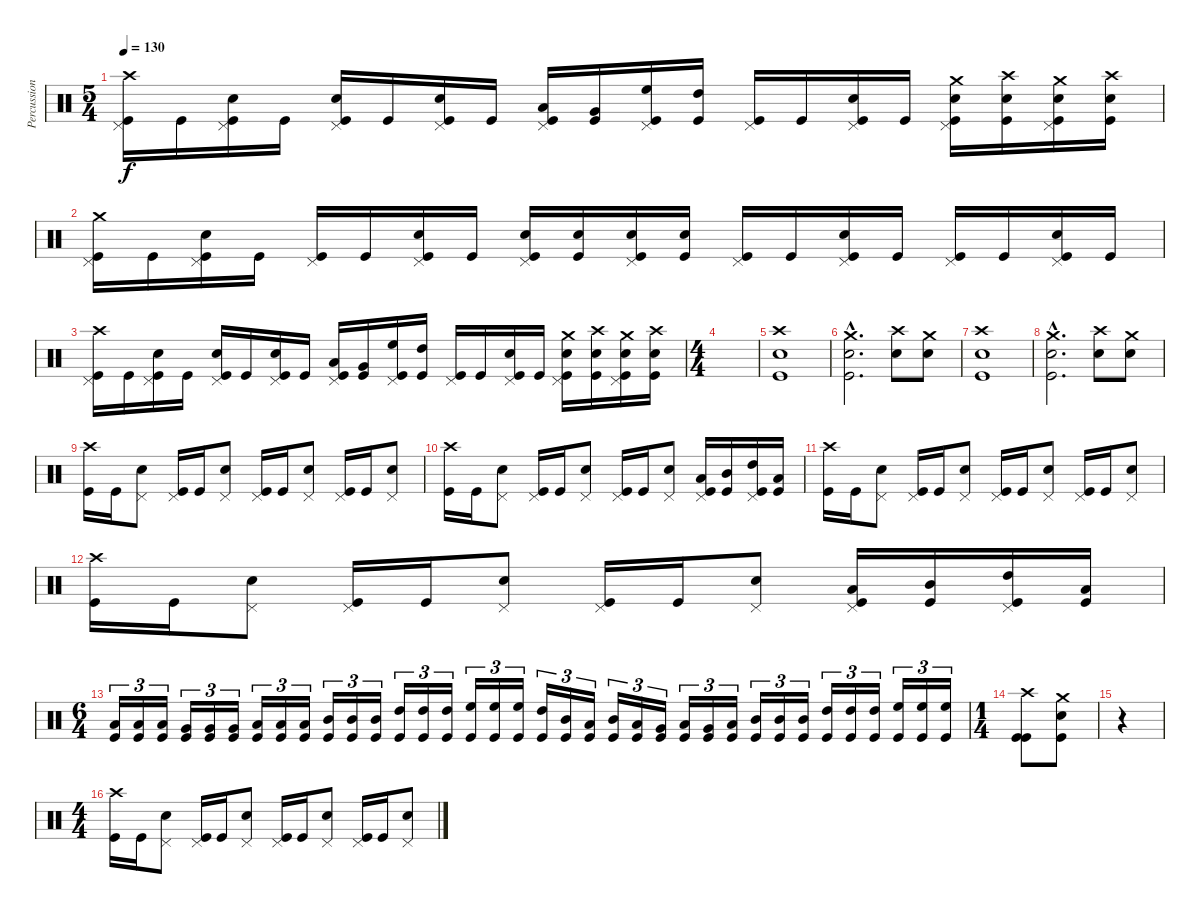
\track ("Percussion" "Percussion") {instrument percussion}
\staff {score}
\articulation defaults
\ts (5 4)
\tempo 130
\clef neutral
\ks c
("Crash high (hit)" "Pedal Hi-Hat (hit)" "Kick (hit)").16{dy f} "Kick (hit)".16 ("Snare (hit) 2" "Pedal Hi-Hat (hit)" "Kick (hit)").16 "Kick (hit)".16 ("Snare (hit) 2" "Pedal Hi-Hat (hit)" "Kick (hit)").16 "Kick (hit)".16 ("Snare (hit) 2" "Pedal Hi-Hat (hit)" "Kick (hit)").16 "Kick (hit)".16 ("Low Floor Tom (hit)" "Pedal Hi-Hat (hit)" "Kick (hit)").16 ("Very Low Tom (hit)" "Kick (hit)").16 ("High Floor Tom (hit)" "Pedal Hi-Hat (hit)" "Kick (hit)").16 ("High Tom (hit)" "Kick (hit)").16 ("Pedal Hi-Hat (hit)" "Kick (hit)").16 "Kick (hit)".16 ("Snare (hit) 2" "Pedal Hi-Hat (hit)" "Kick (hit)").16 "Kick (hit)".16 ("Crash medium (hit)" "Snare (hit) 2" "Pedal Hi-Hat (hit)" "Kick (hit)").16 ("Crash high (hit)" "Snare (hit) 2" "Kick (hit)").16 ("Crash medium (hit)" "Snare (hit) 2" "Pedal Hi-Hat (hit)" "Kick (hit)").16 ("Crash high (hit)" "Snare (hit) 2" "Kick (hit)").16 |
("Pedal Hi-Hat (hit)" "Crash medium (hit)" "Kick (hit)").16 "Kick (hit)".16 ("Pedal Hi-Hat (hit)" "Snare (hit) 2" "Kick (hit)").16 "Kick (hit)".16 ("Pedal Hi-Hat (hit)" "Kick (hit)").16 "Kick (hit)".16 ("Pedal Hi-Hat (hit)" "Snare (hit) 2" "Kick (hit)").16 "Kick (hit)".16 ("Pedal Hi-Hat (hit)" "Snare (hit) 2" "Kick (hit)").16 ("Snare (hit) 2" "Kick (hit)").16 ("Pedal Hi-Hat (hit)" "Snare (hit) 2" "Kick (hit)").16 ("Snare (hit) 2" "Kick (hit)").16 ("Pedal Hi-Hat (hit)" "Kick (hit)").16 "Kick (hit)".16 ("Pedal Hi-Hat (hit)" "Snare (hit) 2" "Kick (hit)").16 "Kick (hit)".16 ("Pedal Hi-Hat (hit)" "Kick (hit)").16 "Kick (hit)".16 ("Pedal Hi-Hat (hit)" "Snare (hit) 2" "Kick (hit)").16 "Kick (hit)".16 |
("Crash high (hit)" "Pedal Hi-Hat (hit)" "Kick (hit)").16 "Kick (hit)".16 ("Snare (hit) 2" "Pedal Hi-Hat (hit)" "Kick (hit)").16 "Kick (hit)".16 ("Snare (hit) 2" "Pedal Hi-Hat (hit)" "Kick (hit)").16 "Kick (hit)".16 ("Snare (hit) 2" "Pedal Hi-Hat (hit)" "Kick (hit)").16 "Kick (hit)".16 ("Low Floor Tom (hit)" "Pedal Hi-Hat (hit)" "Kick (hit)").16 ("Very Low Tom (hit)" "Kick (hit)").16 ("High Floor Tom (hit)" "Pedal Hi-Hat (hit)" "Kick (hit)").16 ("High Tom (hit)" "Kick (hit)").16 ("Pedal Hi-Hat (hit)" "Kick (hit)").16 "Kick (hit)".16 ("Snare (hit) 2" "Pedal Hi-Hat (hit)" "Kick (hit)").16 "Kick (hit)".16 ("Crash medium (hit)" "Snare (hit) 2" "Pedal Hi-Hat (hit)" "Kick (hit)").16 ("Crash high (hit)" "Snare (hit) 2" "Kick (hit)").16 ("Crash medium (hit)" "Snare (hit) 2" "Pedal Hi-Hat (hit)" "Kick (hit)").16 ("Crash high (hit)" "Snare (hit) 2" "Kick (hit)").16 |
\ts (4 4)
|
("Crash high (hit)" "Snare (hit) 2" "Kick (hit)").1 |
("Crash medium (hit)"{hac} "Snare (hit) 2"{hac} "Kick (hit)"{hac}).2{d} ("Crash high (hit)" "Snare (hit) 2").8 ("Crash medium (hit)" "Snare (hit) 2").8 |
("Crash high (hit)" "Snare (hit) 2" "Kick (hit)").1 |
("Crash medium (hit)"{hac} "Snare (hit) 2"{hac} "Kick (hit)"{hac}).2{d} ("Crash high (hit)" "Snare (hit) 2").8 ("Crash medium (hit)" "Snare (hit) 2").8 |
("Crash high (hit)" "Kick (hit)").16 "Kick (hit)".16 ("Pedal Hi-Hat (hit)" "Snare (hit) 2").8 ("Pedal Hi-Hat (hit)" "Kick (hit)").16 "Kick (hit)".16 ("Pedal Hi-Hat (hit)" "Snare (hit) 2").8 ("Pedal Hi-Hat (hit)" "Kick (hit)").16 "Kick (hit)".16 ("Pedal Hi-Hat (hit)" "Snare (hit) 2").8 ("Pedal Hi-Hat (hit)" "Kick (hit)").16 "Kick (hit)".16 ("Pedal Hi-Hat (hit)" "Snare (hit) 2").8 |
("Crash high (hit)" "Kick (hit)").16 "Kick (hit)".16 ("Pedal Hi-Hat (hit)" "Snare (hit) 2").8 ("Pedal Hi-Hat (hit)" "Kick (hit)").16 "Kick (hit)".16 ("Pedal Hi-Hat (hit)" "Snare (hit) 2").8 ("Pedal Hi-Hat (hit)" "Kick (hit)").16 "Kick (hit)".16 ("Pedal Hi-Hat (hit)" "Snare (hit) 2").8 ("Low Tom (hit)" "Pedal Hi-Hat (hit)" "Kick (hit)").16 ("Mid Tom (hit)" "Kick (hit)").16 ("High Tom (hit)" "Pedal Hi-Hat (hit)" "Kick (hit)").16 ("Low Tom (hit)" "Kick (hit)").16 |
("Crash high (hit)" "Kick (hit)").16 "Kick (hit)".16 ("Pedal Hi-Hat (hit)" "Snare (hit) 2").8 ("Pedal Hi-Hat (hit)" "Kick (hit)").16 "Kick (hit)".16 ("Pedal Hi-Hat (hit)" "Snare (hit) 2").8 ("Pedal Hi-Hat (hit)" "Kick (hit)").16 "Kick (hit)".16 ("Pedal Hi-Hat (hit)" "Snare (hit) 2").8 ("Pedal Hi-Hat (hit)" "Kick (hit)").16 "Kick (hit)".16 ("Pedal Hi-Hat (hit)" "Snare (hit) 2").8 |
("Crash high (hit)" "Kick (hit)").16 "Kick (hit)".16 ("Pedal Hi-Hat (hit)" "Snare (hit) 2").8 ("Pedal Hi-Hat (hit)" "Kick (hit)").16 "Kick (hit)".16 ("Pedal Hi-Hat (hit)" "Snare (hit) 2").8 ("Pedal Hi-Hat (hit)" "Kick (hit)").16 "Kick (hit)".16 ("Pedal Hi-Hat (hit)" "Snare (hit) 2").8 ("Low Tom (hit)" "Pedal Hi-Hat (hit)" "Kick (hit)").16 ("Mid Tom (hit)" "Kick (hit)").16 ("High Tom (hit)" "Pedal Hi-Hat (hit)" "Kick (hit)").16 ("Low Tom (hit)" "Kick (hit)").16 |
\ts (6 4)
("Low Floor Tom (hit)" "Kick (hit)").16{tu (3 2)} ("Low Floor Tom (hit)" "Kick (hit)").16{tu (3 2)} ("Low Floor Tom (hit)" "Kick (hit)").16{tu (3 2)} ("Very Low Tom (hit)" "Kick (hit)").16{tu (3 2)} ("Very Low Tom (hit)" "Kick (hit)").16{tu (3 2)} ("Very Low Tom (hit)" "Kick (hit)").16{tu (3 2)} ("Low Tom (hit)" "Kick (hit)").16{tu (3 2)} ("Low Tom (hit)" "Kick (hit)").16{tu (3 2)} ("Low Tom (hit)" "Kick (hit)").16{tu (3 2)} ("Mid Tom (hit)" "Kick (hit)").16{tu (3 2)} ("Mid Tom (hit)" "Kick (hit)").16{tu (3 2)} ("Mid Tom (hit)" "Kick (hit)").16{tu (3 2)} ("High Tom (hit)" "Kick (hit)").16{tu (3 2)} ("High Tom (hit)" "Kick (hit)").16{tu (3 2)} ("High Tom (hit)" "Kick (hit)").16{tu (3 2)} ("High Floor Tom (hit)" "Kick (hit)").16{tu (3 2)} ("High Floor Tom (hit)" "Kick (hit)").16{tu (3 2)} ("High Floor Tom (hit)" "Kick (hit)").16{tu (3 2)} ("High Tom (hit)" "Kick (hit)").16{tu (3 2)} ("Mid Tom (hit)" "Kick (hit)").16{tu (3 2)} ("Low Tom (hit)" "Kick (hit)").16{tu (3 2)} ("Mid Tom (hit)" "Kick (hit)").16{tu (3 2)} ("Low Tom (hit)" "Kick (hit)").16{tu (3 2)} ("Very Low Tom (hit)" "Kick (hit)").16{tu (3 2)} ("Low Floor Tom (hit)" "Kick (hit)").16{tu (3 2)} ("Very Low Tom (hit)" "Kick (hit)").16{tu (3 2)} ("Low Tom (hit)" "Kick (hit)").16{tu (3 2)} ("Mid Tom (hit)" "Kick (hit)").16{tu (3 2)} ("Mid Tom (hit)" "Kick (hit)").16{tu (3 2)} ("Mid Tom (hit)" "Kick (hit)").16{tu (3 2)} ("High Tom (hit)" "Kick (hit)").16{tu (3 2)} ("High Tom (hit)" "Kick (hit)").16{tu (3 2)} ("High Tom (hit)" "Kick (hit)").16{tu (3 2)} ("High Floor Tom (hit)" "Kick (hit)").16{tu (3 2)} ("High Floor Tom (hit)" "Kick (hit)").16{tu (3 2)} ("High Floor Tom (hit)" "Kick (hit)").16{tu (3 2)} |
\ts (1 4)
("Crash high (hit)" "Kick (hit)" "Kick (hit)").8 ("Crash medium (hit)" "Snare (hit) 2" "Kick (hit)").8 |
r.4 |
\ts (4 4)
("Crash high (hit)" "Kick (hit)").16 "Kick (hit)".16 ("Pedal Hi-Hat (hit)" "Snare (hit) 2").8 ("Pedal Hi-Hat (hit)" "Kick (hit)").16 "Kick (hit)".16 ("Pedal Hi-Hat (hit)" "Snare (hit) 2").8 ("Pedal Hi-Hat (hit)" "Kick (hit)").16 "Kick (hit)".16 ("Pedal Hi-Hat (hit)" "Snare (hit) 2").8 ("Pedal Hi-Hat (hit)" "Kick (hit)").16 "Kick (hit)".16 ("Pedal Hi-Hat (hit)" "Snare (hit) 2").8
